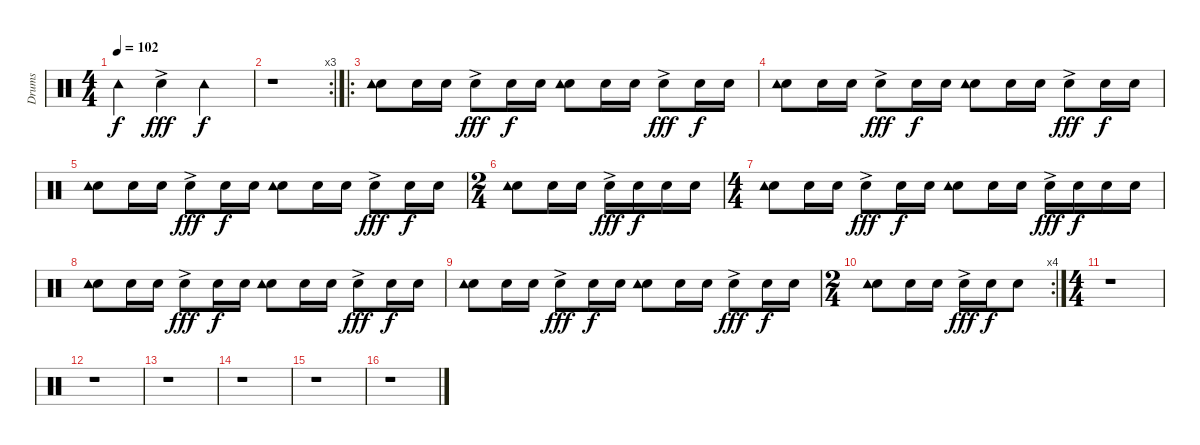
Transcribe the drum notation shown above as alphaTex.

\track ("Drums" "Drums") {instrument percussion}
\staff {score}
\articulation defaults
\ts (4 4)
\tempo 102
\clef neutral
\ks c "Tambourine (hit)".4{dy f} "Snare (hit) 2"{ac}.4{dy fff} "Tambourine (hit)".2{dy f}
|
\rc 3
r.1 |
\ro
("Snare (hit) 2" "Tambourine (hit)").8 "Snare (hit) 2".16 "Snare (hit) 2".16 "Snare (hit) 2"{ac}.8{dy fff} "Snare (hit) 2".16{dy f} "Snare (hit) 2".16 ("Snare (hit) 2" "Tambourine (hit)").8 "Snare (hit) 2".16 "Snare (hit) 2".16 "Snare (hit) 2"{ac}.8{dy fff} "Snare (hit) 2".16{dy f} "Snare (hit) 2".16 |
("Snare (hit) 2" "Tambourine (hit)").8 "Snare (hit) 2".16 "Snare (hit) 2".16 "Snare (hit) 2"{ac}.8{dy fff} "Snare (hit) 2".16{dy f} "Snare (hit) 2".16 ("Snare (hit) 2" "Tambourine (hit)").8 "Snare (hit) 2".16 "Snare (hit) 2".16 "Snare (hit) 2"{ac}.8{dy fff} "Snare (hit) 2".16{dy f} "Snare (hit) 2".16 |
("Snare (hit) 2" "Tambourine (hit)").8 "Snare (hit) 2".16 "Snare (hit) 2".16 "Snare (hit) 2"{ac}.8{dy fff} "Snare (hit) 2".16{dy f} "Snare (hit) 2".16 ("Snare (hit) 2" "Tambourine (hit)").8 "Snare (hit) 2".16 "Snare (hit) 2".16 "Snare (hit) 2"{ac}.8{dy fff} "Snare (hit) 2".16{dy f} "Snare (hit) 2".16 |
\ts (2 4)
("Snare (hit) 2" "Tambourine (hit)").8 "Snare (hit) 2".16 "Snare (hit) 2".16 "Snare (hit) 2"{ac}.16{dy fff} "Snare (hit) 2".16{dy f} "Snare (hit) 2".16 "Snare (hit) 2".16 |
\ts (4 4)
("Snare (hit) 2" "Tambourine (hit)").8 "Snare (hit) 2".16 "Snare (hit) 2".16 "Snare (hit) 2"{ac}.8{dy fff} "Snare (hit) 2".16{dy f} "Snare (hit) 2".16 ("Snare (hit) 2" "Tambourine (hit)").8 "Snare (hit) 2".16 "Snare (hit) 2".16 "Snare (hit) 2"{ac}.16{dy fff} "Snare (hit) 2".16{dy f} "Snare (hit) 2".16 "Snare (hit) 2".16 |
("Snare (hit) 2" "Tambourine (hit)").8 "Snare (hit) 2".16 "Snare (hit) 2".16 "Snare (hit) 2"{ac}.8{dy fff} "Snare (hit) 2".16{dy f} "Snare (hit) 2".16 ("Snare (hit) 2" "Tambourine (hit)").8 "Snare (hit) 2".16 "Snare (hit) 2".16 "Snare (hit) 2"{ac}.8{dy fff} "Snare (hit) 2".16{dy f} "Snare (hit) 2".16 |
("Snare (hit) 2" "Tambourine (hit)").8 "Snare (hit) 2".16 "Snare (hit) 2".16 "Snare (hit) 2"{ac}.8{dy fff} "Snare (hit) 2".16{dy f} "Snare (hit) 2".16 ("Snare (hit) 2" "Tambourine (hit)").8 "Snare (hit) 2".16 "Snare (hit) 2".16 "Snare (hit) 2"{ac}.8{dy fff} "Snare (hit) 2".16{dy f} "Snare (hit) 2".16 |
\rc 4
\ts (2 4)
("Snare (hit) 2" "Tambourine (hit)").8 "Snare (hit) 2".16 "Snare (hit) 2".16 "Snare (hit) 2"{ac}.16{dy fff} "Snare (hit) 2".16{dy f} "Snare (hit) 2".8 |
\ts (4 4)
r.1 |
r.1 |
r.1 |
r.1 |
r.1 |
r.1
